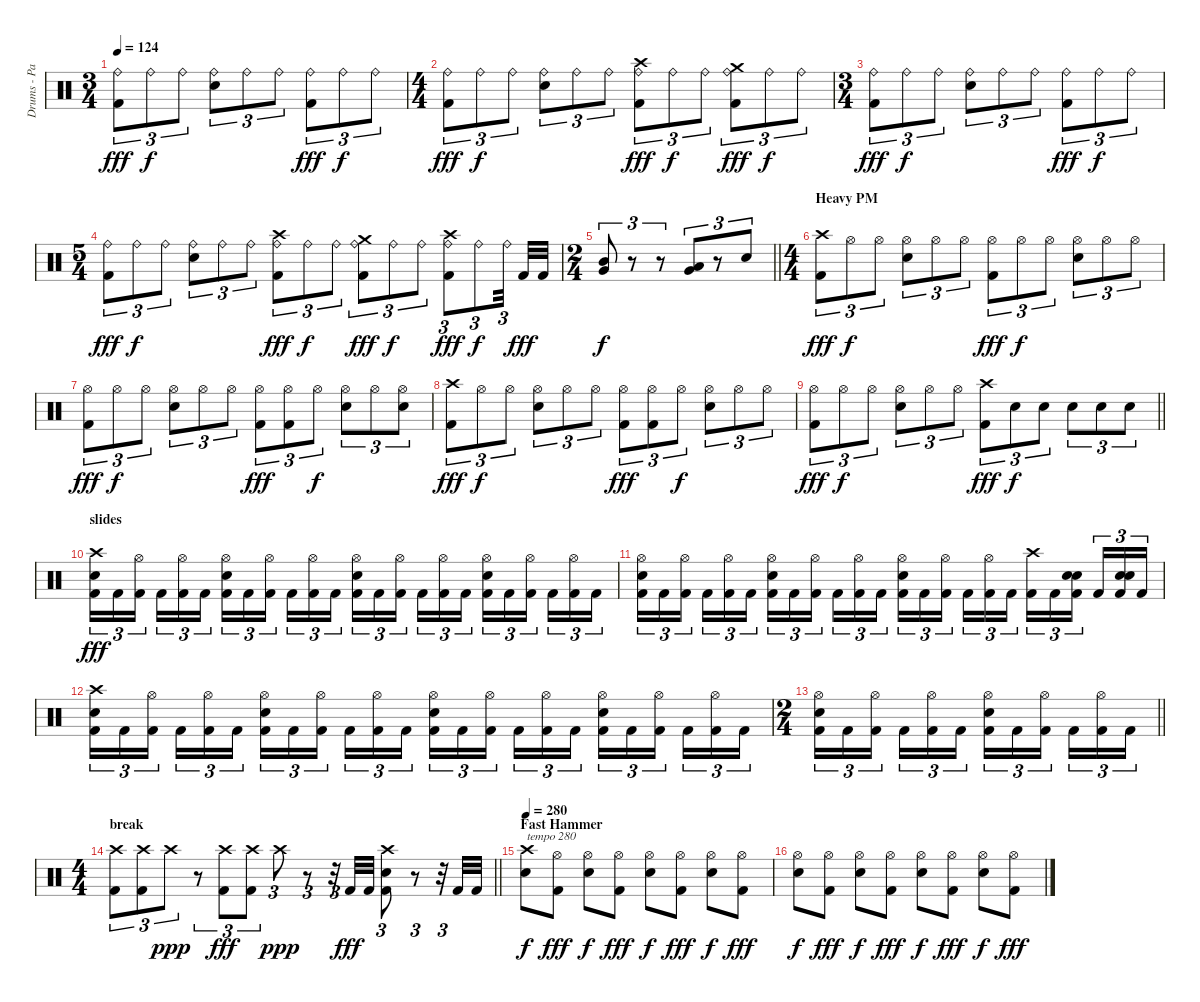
\track ("Drums - Paul Mazurkiewicz" "Drums - Pa") {instrument percussion}
\staff {score}
\articulation defaults
\ts (3 4)
\tempo 124
\clef neutral
\ks c
("Ride (bell)" "Kick (hit) 2").8{tu (3 2) dy fff} "Ride (bell)".8{tu (3 2) dy f} "Ride (bell)".8{tu (3 2)} ("Ride (bell)" "Snare (hit) 2").8{tu (3 2)} "Ride (bell)".8{tu (3 2)} "Ride (bell)".8{tu (3 2)} ("Ride (bell)" "Kick (hit) 2").8{tu (3 2) dy fff} "Ride (bell)".8{tu (3 2) dy f} "Ride (bell)".8{tu (3 2)} |
\ts (4 4)
("Ride (bell)" "Kick (hit) 2").8{tu (3 2) dy fff} "Ride (bell)".8{tu (3 2) dy f} "Ride (bell)".8{tu (3 2)} ("Ride (bell)" "Snare (hit) 2").8{tu (3 2)} "Ride (bell)".8{tu (3 2)} "Ride (bell)".8{tu (3 2)} ("Crash high (hit)" "Ride (bell)" "Kick (hit) 2").8{tu (3 2) dy fff} "Ride (bell)".8{tu (3 2) dy f} "Ride (bell)".8{tu (3 2)} ("Crash medium (hit)" "Ride (bell)" "Kick (hit) 2").8{tu (3 2) dy fff} "Ride (bell)".8{tu (3 2) dy f} "Ride (bell)".8{tu (3 2)} |
\ts (3 4)
("Ride (bell)" "Kick (hit) 2").8{tu (3 2) dy fff} "Ride (bell)".8{tu (3 2) dy f} "Ride (bell)".8{tu (3 2)} ("Ride (bell)" "Snare (hit) 2").8{tu (3 2)} "Ride (bell)".8{tu (3 2)} "Ride (bell)".8{tu (3 2)} ("Ride (bell)" "Kick (hit) 2").8{tu (3 2) dy fff} "Ride (bell)".8{tu (3 2) dy f} "Ride (bell)".8{tu (3 2)} |
\ts (5 4)
("Ride (bell)" "Kick (hit) 2").8{tu (3 2) dy fff} "Ride (bell)".8{tu (3 2) dy f} "Ride (bell)".8{tu (3 2)} ("Ride (bell)" "Snare (hit) 2").8{tu (3 2)} "Ride (bell)".8{tu (3 2)} "Ride (bell)".8{tu (3 2)} ("Crash high (hit)" "Ride (bell)" "Kick (hit) 2").8{tu (3 2) dy fff} "Ride (bell)".8{tu (3 2) dy f} "Ride (bell)".8{tu (3 2)} ("Crash medium (hit)" "Ride (bell)" "Kick (hit) 2").8{tu (3 2) dy fff} "Ride (bell)".8{tu (3 2) dy f} "Ride (bell)".8{tu (3 2)} ("Crash high (hit)" "Ride (bell)" "Kick (hit) 2").8{tu (3 2) dy fff} "Ride (bell)".8{tu (3 2) dy f} "Ride (bell)".32{tu (3 2) beam splitsecondary} "Kick (hit) 2".32{dy fff} "Kick (hit) 2".32 |
\ts (2 4)
\barLineRight lightlight
("Mid Tom (hit)" "Very Low Tom (hit)").8{tu (3 2) dy f} r.8{tu (3 2)} r.8{tu (3 2)} ("Low Tom (hit)" "Very Low Tom (hit)").8{tu (3 2)} r.8{tu (3 2)} "Snare (hit) 2".8{tu (3 2)} |
\ts (4 4)
\section ("" "Heavy PM")
("Crash high (hit)" "Kick (hit) 2").8{tu (3 2) dy fff} "Hi-Hat (open)".8{tu (3 2) dy f} "Hi-Hat (open)".8{tu (3 2)} ("Hi-Hat (open)" "Snare (hit) 2").8{tu (3 2)} "Hi-Hat (open)".8{tu (3 2)} "Hi-Hat (open)".8{tu (3 2)} ("Hi-Hat (open)" "Kick (hit) 2").8{tu (3 2) dy fff} "Hi-Hat (open)".8{tu (3 2) dy f} "Hi-Hat (open)".8{tu (3 2)} ("Hi-Hat (open)" "Snare (hit) 2").8{tu (3 2)} "Hi-Hat (open)".8{tu (3 2)} "Hi-Hat (open)".8{tu (3 2)} |
("Hi-Hat (open)" "Kick (hit) 2").8{tu (3 2) dy fff} "Hi-Hat (open)".8{tu (3 2) dy f} "Hi-Hat (open)".8{tu (3 2)} ("Hi-Hat (open)" "Snare (hit) 2").8{tu (3 2)} "Hi-Hat (open)".8{tu (3 2)} "Hi-Hat (open)".8{tu (3 2)} ("Hi-Hat (open)" "Kick (hit) 2").8{tu (3 2) dy fff} ("Hi-Hat (open)" "Kick (hit) 2").8{tu (3 2)} "Hi-Hat (open)".8{tu (3 2) dy f} ("Hi-Hat (open)" "Snare (hit) 2").8{tu (3 2)} "Hi-Hat (open)".8{tu (3 2)} ("Hi-Hat (open)" "Snare (hit) 2").8{tu (3 2)} |
("Crash high (hit)" "Kick (hit) 2").8{tu (3 2) dy fff} "Hi-Hat (open)".8{tu (3 2) dy f} "Hi-Hat (open)".8{tu (3 2)} ("Hi-Hat (open)" "Snare (hit) 2").8{tu (3 2)} "Hi-Hat (open)".8{tu (3 2)} "Hi-Hat (open)".8{tu (3 2)} ("Hi-Hat (open)" "Kick (hit) 2").8{tu (3 2) dy fff} ("Hi-Hat (open)" "Kick (hit) 2").8{tu (3 2)} "Hi-Hat (open)".8{tu (3 2) dy f} ("Hi-Hat (open)" "Snare (hit) 2").8{tu (3 2)} "Hi-Hat (open)".8{tu (3 2)} "Hi-Hat (open)".8{tu (3 2)} |
\barLineRight lightlight
("Hi-Hat (open)" "Kick (hit) 2").8{tu (3 2) dy fff} "Hi-Hat (open)".8{tu (3 2) dy f} "Hi-Hat (open)".8{tu (3 2)} ("Hi-Hat (open)" "Snare (hit) 2").8{tu (3 2)} "Hi-Hat (open)".8{tu (3 2)} "Hi-Hat (open)".8{tu (3 2)} ("Crash high (hit)" "Kick (hit) 2").8{tu (3 2) dy fff} "Snare (hit) 2".8{tu (3 2) dy f} "Snare (hit) 2".8{tu (3 2)} "Snare (hit) 2".8{tu (3 2)} "Snare (hit) 2".8{tu (3 2)} "Snare (hit) 2".8{tu (3 2)} |
\section ("" "slides")
("Crash high (hit)" "Snare (hit) 2" "Kick (hit) 2").16{tu (3 2) dy fff} "Kick (hit) 2".16{tu (3 2)} ("Hi-Hat (open)" "Kick (hit) 2").16{tu (3 2) beam splitsecondary} "Kick (hit) 2".16{tu (3 2)} ("Hi-Hat (open)" "Kick (hit) 2").16{tu (3 2)} "Kick (hit) 2".16{tu (3 2)} ("Hi-Hat (open)" "Snare (hit) 2" "Kick (hit) 2").16{tu (3 2)} "Kick (hit) 2".16{tu (3 2)} ("Hi-Hat (open)" "Kick (hit) 2").16{tu (3 2) beam splitsecondary} "Kick (hit) 2".16{tu (3 2)} ("Hi-Hat (open)" "Kick (hit) 2").16{tu (3 2)} "Kick (hit) 2".16{tu (3 2)} ("Hi-Hat (open)" "Snare (hit) 2" "Kick (hit) 2").16{tu (3 2)} "Kick (hit) 2".16{tu (3 2)} ("Hi-Hat (open)" "Kick (hit) 2").16{tu (3 2) beam splitsecondary} "Kick (hit) 2".16{tu (3 2)} ("Hi-Hat (open)" "Kick (hit) 2").16{tu (3 2)} "Kick (hit) 2".16{tu (3 2)} ("Hi-Hat (open)" "Snare (hit) 2" "Kick (hit) 2").16{tu (3 2)} "Kick (hit) 2".16{tu (3 2)} ("Hi-Hat (open)" "Kick (hit) 2").16{tu (3 2) beam splitsecondary} "Kick (hit) 2".16{tu (3 2)} ("Hi-Hat (open)" "Kick (hit) 2").16{tu (3 2)} "Kick (hit) 2".16{tu (3 2)} |
("Hi-Hat (open)" "Snare (hit) 2" "Kick (hit) 2").16{tu (3 2)} "Kick (hit) 2".16{tu (3 2)} ("Hi-Hat (open)" "Kick (hit) 2").16{tu (3 2) beam splitsecondary} "Kick (hit) 2".16{tu (3 2)} ("Hi-Hat (open)" "Kick (hit) 2").16{tu (3 2)} "Kick (hit) 2".16{tu (3 2)} ("Hi-Hat (open)" "Snare (hit) 2" "Kick (hit) 2").16{tu (3 2)} "Kick (hit) 2".16{tu (3 2)} ("Hi-Hat (open)" "Kick (hit) 2").16{tu (3 2) beam splitsecondary} "Kick (hit) 2".16{tu (3 2)} ("Hi-Hat (open)" "Kick (hit) 2").16{tu (3 2)} "Kick (hit) 2".16{tu (3 2)} ("Hi-Hat (open)" "Snare (hit) 2" "Kick (hit) 2").16{tu (3 2)} "Kick (hit) 2".16{tu (3 2)} ("Hi-Hat (open)" "Kick (hit) 2").16{tu (3 2) beam splitsecondary} "Kick (hit) 2".16{tu (3 2)} ("Hi-Hat (open)" "Kick (hit) 2").16{tu (3 2)} "Kick (hit) 2".16{tu (3 2)} ("Crash high (hit)" "Kick (hit) 2").16{tu (3 2)} "Kick (hit) 2".16{tu (3 2)} ("Snare (hit) 2" "Snare (hit) 2" "Kick (hit) 2").16{tu (3 2) beam splitsecondary} "Kick (hit) 2".16{tu (3 2)} ("Snare (hit) 2" "Snare (hit) 2" "Kick (hit) 2").16{tu (3 2)} "Kick (hit) 2".16{tu (3 2)} |
("Crash high (hit)" "Snare (hit) 2" "Kick (hit) 2").16{tu (3 2)} "Kick (hit) 2".16{tu (3 2)} ("Hi-Hat (open)" "Kick (hit) 2").16{tu (3 2) beam splitsecondary} "Kick (hit) 2".16{tu (3 2)} ("Hi-Hat (open)" "Kick (hit) 2").16{tu (3 2)} "Kick (hit) 2".16{tu (3 2)} ("Hi-Hat (open)" "Snare (hit) 2" "Kick (hit) 2").16{tu (3 2)} "Kick (hit) 2".16{tu (3 2)} ("Hi-Hat (open)" "Kick (hit) 2").16{tu (3 2) beam splitsecondary} "Kick (hit) 2".16{tu (3 2)} ("Hi-Hat (open)" "Kick (hit) 2").16{tu (3 2)} "Kick (hit) 2".16{tu (3 2)} ("Hi-Hat (open)" "Snare (hit) 2" "Kick (hit) 2").16{tu (3 2)} "Kick (hit) 2".16{tu (3 2)} ("Hi-Hat (open)" "Kick (hit) 2").16{tu (3 2) beam splitsecondary} "Kick (hit) 2".16{tu (3 2)} ("Hi-Hat (open)" "Kick (hit) 2").16{tu (3 2)} "Kick (hit) 2".16{tu (3 2)} ("Hi-Hat (open)" "Snare (hit) 2" "Kick (hit) 2").16{tu (3 2)} "Kick (hit) 2".16{tu (3 2)} ("Hi-Hat (open)" "Kick (hit) 2").16{tu (3 2) beam splitsecondary} "Kick (hit) 2".16{tu (3 2)} ("Hi-Hat (open)" "Kick (hit) 2").16{tu (3 2)} "Kick (hit) 2".16{tu (3 2)} |
\ts (2 4)
\barLineRight lightlight
("Hi-Hat (open)" "Snare (hit) 2" "Kick (hit) 2").16{tu (3 2)} "Kick (hit) 2".16{tu (3 2)} ("Hi-Hat (open)" "Kick (hit) 2").16{tu (3 2) beam splitsecondary} "Kick (hit) 2".16{tu (3 2)} ("Hi-Hat (open)" "Kick (hit) 2").16{tu (3 2)} "Kick (hit) 2".16{tu (3 2)} ("Hi-Hat (open)" "Snare (hit) 2" "Kick (hit) 2").16{tu (3 2)} "Kick (hit) 2".16{tu (3 2)} ("Hi-Hat (open)" "Kick (hit) 2").16{tu (3 2) beam splitsecondary} "Kick (hit) 2".16{tu (3 2)} ("Hi-Hat (open)" "Kick (hit) 2").16{tu (3 2)} "Kick (hit) 2".16{tu (3 2)} |
\ts (4 4)
\section ("" "break")
\barLineRight lightlight
("Crash high (hit)" "Kick (hit) 2").8{tu (3 2)} ("Crash high (hit)" "Kick (hit) 2").8{tu (3 2)} "Crash high (hit)".8{tu (3 2) dy ppp} r.8{tu (3 2)} ("Crash high (hit)" "Kick (hit) 2").8{tu (3 2) dy fff} ("Crash high (hit)" "Kick (hit) 2").8{tu (3 2)} "Crash high (hit)".8{tu (3 2) dy ppp} r.8{tu (3 2)} r.32{tu (3 2)} "Kick (hit) 2".32{dy fff} "Kick (hit) 2".32 ("Crash high (hit)" "Snare (hit) 2" "Kick (hit) 2").8{tu (3 2)} r.8{tu (3 2)} r.32{tu (3 2)} "Kick (hit) 2".32 "Kick (hit) 2".32 |
\section ("" "Fast Hammer")
\tempo 280
("Crash high (hit)" "Snare (hit) 2").8{txt "tempo 280" dy f} ("Hi-Hat (open)" "Kick (hit) 2").8{dy fff} ("Hi-Hat (open)" "Snare (hit) 2").8{dy f} ("Hi-Hat (open)" "Kick (hit) 2").8{dy fff} ("Hi-Hat (open)" "Snare (hit) 2").8{dy f} ("Hi-Hat (open)" "Kick (hit) 2").8{dy fff} ("Hi-Hat (open)" "Snare (hit) 2").8{dy f} ("Hi-Hat (open)" "Kick (hit) 2").8{dy fff} |
("Hi-Hat (open)" "Snare (hit) 2").8{dy f} ("Hi-Hat (open)" "Kick (hit) 2").8{dy fff} ("Hi-Hat (open)" "Snare (hit) 2").8{dy f} ("Hi-Hat (open)" "Kick (hit) 2").8{dy fff} ("Hi-Hat (open)" "Snare (hit) 2").8{dy f} ("Hi-Hat (open)" "Kick (hit) 2").8{dy fff} ("Hi-Hat (open)" "Snare (hit) 2").8{dy f} ("Hi-Hat (open)" "Kick (hit) 2").8{dy fff}
